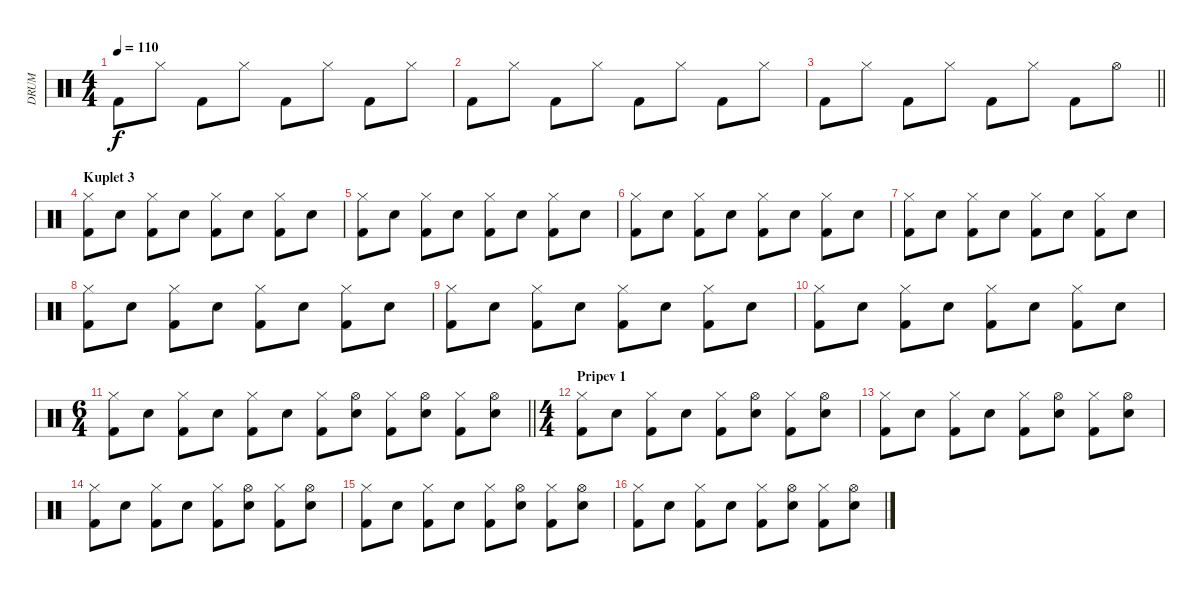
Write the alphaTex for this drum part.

\track ("DRUM" "DRUM") {instrument percussion}
\staff {score}
\articulation defaults
\ts (4 4)
\tempo 110
\clef neutral
\ks c "Kick (hit) 2".8{dy f} "Hi-Hat (closed)".8 "Kick (hit) 2".8 "Hi-Hat (closed)".8 "Kick (hit) 2".8 "Hi-Hat (closed)".8 "Kick (hit) 2".8 "Hi-Hat (closed)".8
|
"Kick (hit) 2".8 "Hi-Hat (closed)".8 "Kick (hit) 2".8 "Hi-Hat (closed)".8 "Kick (hit) 2".8 "Hi-Hat (closed)".8 "Kick (hit) 2".8 "Hi-Hat (closed)".8 |
\barLineRight lightlight "Kick (hit) 2".8 "Hi-Hat (closed)".8 "Kick (hit) 2".8 "Hi-Hat (closed)".8 "Kick (hit) 2".8 "Hi-Hat (closed)".8 "Kick (hit) 2".8 "Hi-Hat (open)".8
|
\section ("" "Kuplet 3")
("Hi-Hat (closed)" "Kick (hit) 2").8 "Electric Snare (hit)".8 ("Hi-Hat (closed)" "Kick (hit) 2").8 "Electric Snare (hit)".8 ("Hi-Hat (closed)" "Kick (hit) 2").8 "Electric Snare (hit)".8 ("Hi-Hat (closed)" "Kick (hit) 2").8 "Electric Snare (hit)".8 |
("Hi-Hat (closed)" "Kick (hit) 2").8 "Electric Snare (hit)".8 ("Hi-Hat (closed)" "Kick (hit) 2").8 "Electric Snare (hit)".8 ("Hi-Hat (closed)" "Kick (hit) 2").8 "Electric Snare (hit)".8 ("Hi-Hat (closed)" "Kick (hit) 2").8 "Electric Snare (hit)".8 |
("Hi-Hat (closed)" "Kick (hit) 2").8 "Electric Snare (hit)".8 ("Hi-Hat (closed)" "Kick (hit) 2").8 "Electric Snare (hit)".8 ("Hi-Hat (closed)" "Kick (hit) 2").8 "Electric Snare (hit)".8 ("Hi-Hat (closed)" "Kick (hit) 2").8 "Electric Snare (hit)".8 |
("Hi-Hat (closed)" "Kick (hit) 2").8 "Electric Snare (hit)".8 ("Hi-Hat (closed)" "Kick (hit) 2").8 "Electric Snare (hit)".8 ("Hi-Hat (closed)" "Kick (hit) 2").8 "Electric Snare (hit)".8 ("Hi-Hat (closed)" "Kick (hit) 2").8 "Electric Snare (hit)".8 |
("Hi-Hat (closed)" "Kick (hit) 2").8 "Electric Snare (hit)".8 ("Hi-Hat (closed)" "Kick (hit) 2").8 "Electric Snare (hit)".8 ("Hi-Hat (closed)" "Kick (hit) 2").8 "Electric Snare (hit)".8 ("Hi-Hat (closed)" "Kick (hit) 2").8 "Electric Snare (hit)".8 |
("Hi-Hat (closed)" "Kick (hit) 2").8 "Electric Snare (hit)".8 ("Hi-Hat (closed)" "Kick (hit) 2").8 "Electric Snare (hit)".8 ("Hi-Hat (closed)" "Kick (hit) 2").8 "Electric Snare (hit)".8 ("Hi-Hat (closed)" "Kick (hit) 2").8 "Electric Snare (hit)".8 |
("Hi-Hat (closed)" "Kick (hit) 2").8 "Electric Snare (hit)".8 ("Hi-Hat (closed)" "Kick (hit) 2").8 "Electric Snare (hit)".8 ("Hi-Hat (closed)" "Kick (hit) 2").8 "Electric Snare (hit)".8 ("Hi-Hat (closed)" "Kick (hit) 2").8 "Electric Snare (hit)".8 |
\ts (6 4)
\barLineRight lightlight
("Hi-Hat (closed)" "Kick (hit) 2").8 "Electric Snare (hit)".8 ("Hi-Hat (closed)" "Kick (hit) 2").8 "Electric Snare (hit)".8 ("Hi-Hat (closed)" "Kick (hit) 2").8 "Electric Snare (hit)".8 ("Hi-Hat (closed)" "Kick (hit) 2").8 ("Hi-Hat (open)" "Electric Snare (hit)").8 ("Hi-Hat (closed)" "Kick (hit) 2").8 ("Hi-Hat (open)" "Electric Snare (hit)").8 ("Hi-Hat (closed)" "Kick (hit) 2").8 ("Hi-Hat (open)" "Electric Snare (hit)").8 |
\ts (4 4)
\section ("" "Pripev 1")
("Hi-Hat (closed)" "Kick (hit) 2").8 "Electric Snare (hit)".8 ("Hi-Hat (closed)" "Kick (hit) 2").8 "Electric Snare (hit)".8 ("Hi-Hat (closed)" "Kick (hit) 2").8 ("Hi-Hat (open)" "Electric Snare (hit)").8 ("Hi-Hat (closed)" "Kick (hit) 2").8 ("Hi-Hat (open)" "Electric Snare (hit)").8 |
("Hi-Hat (closed)" "Kick (hit) 2").8 "Electric Snare (hit)".8 ("Hi-Hat (closed)" "Kick (hit) 2").8 "Electric Snare (hit)".8 ("Hi-Hat (closed)" "Kick (hit) 2").8 ("Hi-Hat (open)" "Electric Snare (hit)").8 ("Hi-Hat (closed)" "Kick (hit) 2").8 ("Hi-Hat (open)" "Electric Snare (hit)").8 |
("Hi-Hat (closed)" "Kick (hit) 2").8 "Electric Snare (hit)".8 ("Hi-Hat (closed)" "Kick (hit) 2").8 "Electric Snare (hit)".8 ("Hi-Hat (closed)" "Kick (hit) 2").8 ("Hi-Hat (open)" "Electric Snare (hit)").8 ("Hi-Hat (closed)" "Kick (hit) 2").8 ("Hi-Hat (open)" "Electric Snare (hit)").8 |
("Hi-Hat (closed)" "Kick (hit) 2").8 "Electric Snare (hit)".8 ("Hi-Hat (closed)" "Kick (hit) 2").8 "Electric Snare (hit)".8 ("Hi-Hat (closed)" "Kick (hit) 2").8 ("Hi-Hat (open)" "Electric Snare (hit)").8 ("Hi-Hat (closed)" "Kick (hit) 2").8 ("Hi-Hat (open)" "Electric Snare (hit)").8 |
("Hi-Hat (closed)" "Kick (hit) 2").8 "Electric Snare (hit)".8 ("Hi-Hat (closed)" "Kick (hit) 2").8 "Electric Snare (hit)".8 ("Hi-Hat (closed)" "Kick (hit) 2").8 ("Hi-Hat (open)" "Electric Snare (hit)").8 ("Hi-Hat (closed)" "Kick (hit) 2").8 ("Hi-Hat (open)" "Electric Snare (hit)").8
